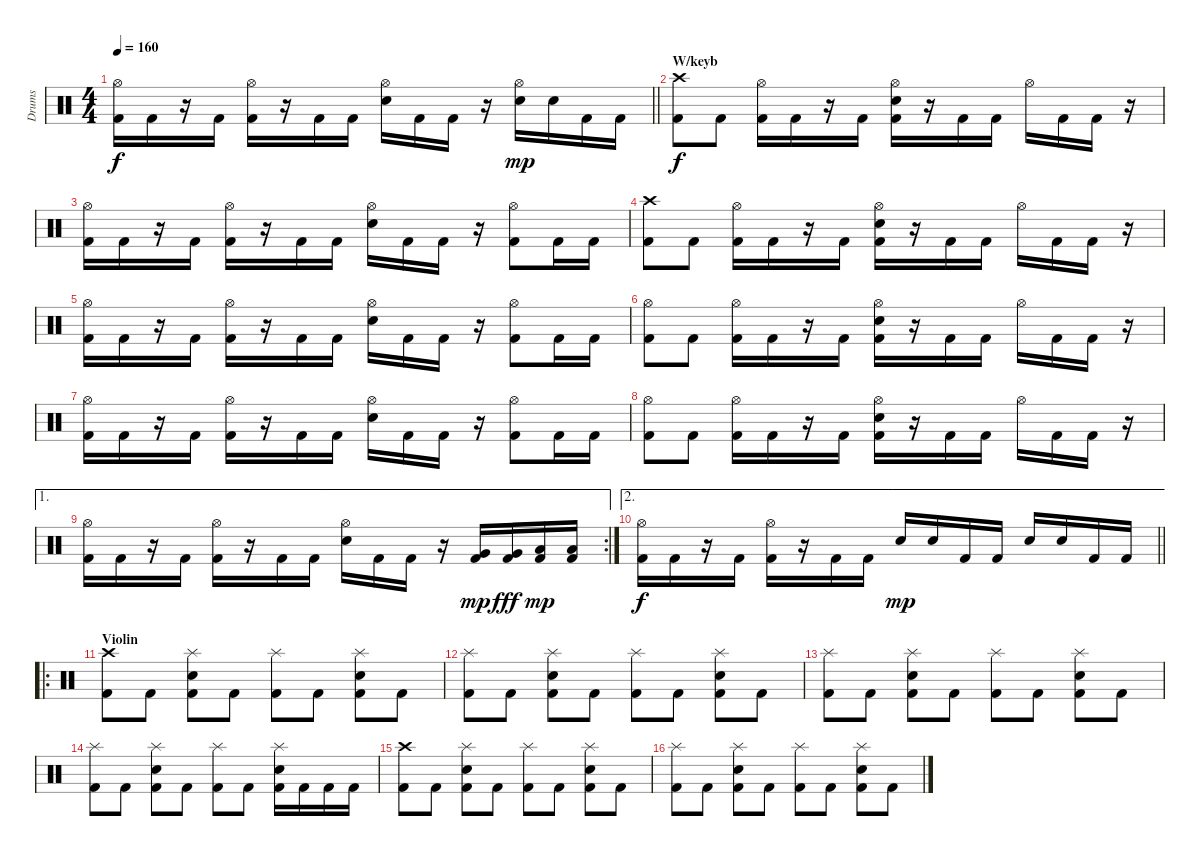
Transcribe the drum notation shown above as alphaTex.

\track ("Drums" "Drums") {instrument percussion}
\staff {score}
\articulation defaults
\ts (4 4)
\tempo 160
\clef neutral
\barLineRight lightlight
\ks c
("Hi-Hat (open)" "Kick (hit) 2").16{dy f} "Kick (hit) 2".16 r.16 "Kick (hit) 2".16 ("Hi-Hat (open)" "Kick (hit) 2").16 r.16 "Kick (hit) 2".16 "Kick (hit) 2".16 ("Electric Snare (hit)" "Hi-Hat (open)").16 "Kick (hit) 2".16 "Kick (hit) 2".16 r.16 ("Electric Snare (hit)" "Hi-Hat (open)").16{dy mp} "Electric Snare (hit)".16 "Kick (hit) 2".16 "Kick (hit) 2".16 |
\section ("" "W/keyb")
("Crash high (hit)" "Kick (hit) 2").8{dy f} "Kick (hit) 2".8 ("Hi-Hat (open)" "Kick (hit) 2").16 "Kick (hit) 2".16 r.16 "Kick (hit) 2".16 ("Hi-Hat (open)" "Electric Snare (hit)" "Kick (hit) 2").16 r.16 "Kick (hit) 2".16 "Kick (hit) 2".16 "Hi-Hat (open)".16 "Kick (hit) 2".16 "Kick (hit) 2".16 r.16 |
("Hi-Hat (open)" "Kick (hit) 2").16 "Kick (hit) 2".16 r.16 "Kick (hit) 2".16 ("Hi-Hat (open)" "Kick (hit) 2").16 r.16 "Kick (hit) 2".16 "Kick (hit) 2".16 ("Electric Snare (hit)" "Hi-Hat (open)").16 "Kick (hit) 2".16 "Kick (hit) 2".16 r.16 ("Hi-Hat (open)" "Kick (hit) 2").8 "Kick (hit) 2".16 "Kick (hit) 2".16 |
("Crash high (hit)" "Kick (hit) 2").8 "Kick (hit) 2".8 ("Hi-Hat (open)" "Kick (hit) 2").16 "Kick (hit) 2".16 r.16 "Kick (hit) 2".16 ("Hi-Hat (open)" "Electric Snare (hit)" "Kick (hit) 2").16 r.16 "Kick (hit) 2".16 "Kick (hit) 2".16 "Hi-Hat (open)".16 "Kick (hit) 2".16 "Kick (hit) 2".16 r.16 |
("Hi-Hat (open)" "Kick (hit) 2").16 "Kick (hit) 2".16 r.16 "Kick (hit) 2".16 ("Hi-Hat (open)" "Kick (hit) 2").16 r.16 "Kick (hit) 2".16 "Kick (hit) 2".16 ("Electric Snare (hit)" "Hi-Hat (open)").16 "Kick (hit) 2".16 "Kick (hit) 2".16 r.16 ("Hi-Hat (open)" "Kick (hit) 2").8 "Kick (hit) 2".16 "Kick (hit) 2".16 |
("Hi-Hat (open)" "Kick (hit) 2").8 "Kick (hit) 2".8 ("Hi-Hat (open)" "Kick (hit) 2").16 "Kick (hit) 2".16 r.16 "Kick (hit) 2".16 ("Hi-Hat (open)" "Electric Snare (hit)" "Kick (hit) 2").16 r.16 "Kick (hit) 2".16 "Kick (hit) 2".16 "Hi-Hat (open)".16 "Kick (hit) 2".16 "Kick (hit) 2".16 r.16 |
("Hi-Hat (open)" "Kick (hit) 2").16 "Kick (hit) 2".16 r.16 "Kick (hit) 2".16 ("Hi-Hat (open)" "Kick (hit) 2").16 r.16 "Kick (hit) 2".16 "Kick (hit) 2".16 ("Electric Snare (hit)" "Hi-Hat (open)").16 "Kick (hit) 2".16 "Kick (hit) 2".16 r.16 ("Hi-Hat (open)" "Kick (hit) 2").8 "Kick (hit) 2".16 "Kick (hit) 2".16 |
("Hi-Hat (open)" "Kick (hit) 2").8 "Kick (hit) 2".8 ("Hi-Hat (open)" "Kick (hit) 2").16 "Kick (hit) 2".16 r.16 "Kick (hit) 2".16 ("Hi-Hat (open)" "Electric Snare (hit)" "Kick (hit) 2").16 r.16 "Kick (hit) 2".16 "Kick (hit) 2".16 "Hi-Hat (open)".16 "Kick (hit) 2".16 "Kick (hit) 2".16 r.16 |
\ae 1
\rc 2
("Hi-Hat (open)" "Kick (hit) 2").16 "Kick (hit) 2".16 r.16 "Kick (hit) 2".16 ("Hi-Hat (open)" "Kick (hit) 2").16 r.16 "Kick (hit) 2".16 "Kick (hit) 2".16 ("Electric Snare (hit)" "Hi-Hat (open)").16 "Kick (hit) 2".16 "Kick (hit) 2".16 r.16 ("Very Low Tom (hit)" "Kick (hit) 2").16{dy mp} ("Very Low Tom (hit)" "Kick (hit) 2").16{dy fff} ("Low Floor Tom (hit)" "Kick (hit) 2").16{dy mp} ("Low Floor Tom (hit)" "Kick (hit) 2").16 |
\ae 2
\barLineRight lightlight
("Hi-Hat (open)" "Kick (hit) 2").16{dy f} "Kick (hit) 2".16 r.16 "Kick (hit) 2".16 ("Hi-Hat (open)" "Kick (hit) 2").16 r.16 "Kick (hit) 2".16 "Kick (hit) 2".16 "Electric Snare (hit)".16{dy mp} "Electric Snare (hit)".16 "Kick (hit) 2".16 "Kick (hit) 2".16 "Electric Snare (hit)".16 "Electric Snare (hit)".16 "Kick (hit) 2".16 "Kick (hit) 2".16 |
\ro
\section ("" "Violin")
("Crash high (hit)" "Kick (hit) 2").8 "Kick (hit) 2".8 ("Electric Snare (hit)" "Splash (hit)" "Kick (hit) 2").8 "Kick (hit) 2".8 ("Splash (hit)" "Kick (hit) 2").8 "Kick (hit) 2".8 ("Electric Snare (hit)" "Splash (hit)" "Kick (hit) 2").8 "Kick (hit) 2".8 |
("Splash (hit)" "Kick (hit) 2").8 "Kick (hit) 2".8 ("Electric Snare (hit)" "Splash (hit)" "Kick (hit) 2").8 "Kick (hit) 2".8 ("Splash (hit)" "Kick (hit) 2").8 "Kick (hit) 2".8 ("Electric Snare (hit)" "Splash (hit)" "Kick (hit) 2").8 "Kick (hit) 2".8 |
("Splash (hit)" "Kick (hit) 2").8 "Kick (hit) 2".8 ("Electric Snare (hit)" "Splash (hit)" "Kick (hit) 2").8 "Kick (hit) 2".8 ("Splash (hit)" "Kick (hit) 2").8 "Kick (hit) 2".8 ("Electric Snare (hit)" "Splash (hit)" "Kick (hit) 2").8 "Kick (hit) 2".8 |
("Splash (hit)" "Kick (hit) 2").8 "Kick (hit) 2".8 ("Electric Snare (hit)" "Splash (hit)" "Kick (hit) 2").8 "Kick (hit) 2".8 ("Splash (hit)" "Kick (hit) 2").8 "Kick (hit) 2".8 ("Electric Snare (hit)" "Splash (hit)" "Kick (hit) 2").16 "Kick (hit) 2".16 "Kick (hit) 2".16 "Kick (hit) 2".16 |
("Crash high (hit)" "Kick (hit) 2").8 "Kick (hit) 2".8 ("Electric Snare (hit)" "Splash (hit)" "Kick (hit) 2").8 "Kick (hit) 2".8 ("Splash (hit)" "Kick (hit) 2").8 "Kick (hit) 2".8 ("Electric Snare (hit)" "Splash (hit)" "Kick (hit) 2").8 "Kick (hit) 2".8 |
("Splash (hit)" "Kick (hit) 2").8 "Kick (hit) 2".8 ("Electric Snare (hit)" "Splash (hit)" "Kick (hit) 2").8 "Kick (hit) 2".8 ("Splash (hit)" "Kick (hit) 2").8 "Kick (hit) 2".8 ("Electric Snare (hit)" "Splash (hit)" "Kick (hit) 2").8 "Kick (hit) 2".8
